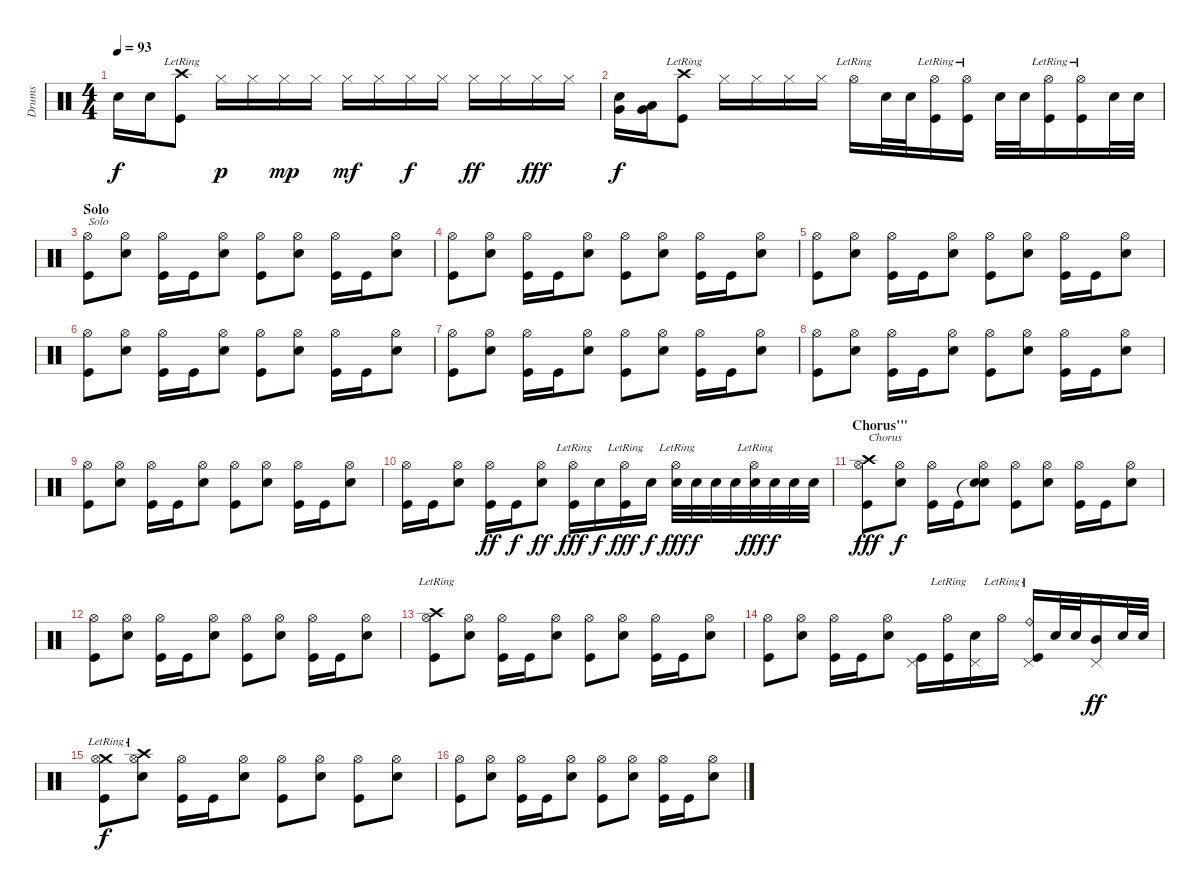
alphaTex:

\track ("Drums" "Drums") {instrument percussion}
\staff {score}
\articulation defaults
\ts (4 4)
\tempo 93
\clef neutral
\ks c "Snare (hit) 2".16{dy f} "Snare (hit) 2".16
("Crash high (hit)"{lr} "Kick (hit)").8 "Hi-Hat (closed)".16{dy p} "Hi-Hat (closed)".16 "Hi-Hat (closed)".16{dy mp} "Hi-Hat (closed)".16 "Hi-Hat (closed)".16{dy mf} "Hi-Hat (closed)".16 "Hi-Hat (closed)".16{dy f} "Hi-Hat (closed)".16 "Hi-Hat (closed)".16{dy ff} "Hi-Hat (closed)".16 "Hi-Hat (closed)".16{dy fff} "Hi-Hat (closed)".16 |
("Very Low Tom (hit)" "Snare (hit) 2").16{dy f} ("Very Low Tom (hit)" "Low Tom (hit)").16 ("Crash high (hit)"{lr} "Kick (hit)").8 "Hi-Hat (closed)".16 "Hi-Hat (closed)".16 "Hi-Hat (closed)".16 "Hi-Hat (closed)".16 "Hi-Hat (open)"{lr}.16 "Snare (hit) 2".32 "Snare (hit) 2".32 ("Hi-Hat (open)"{lr} "Kick (hit)").16 ("Hi-Hat (open)"{lr} "Kick (hit)").16 "Snare (hit) 2".32 "Snare (hit) 2".32 ("Hi-Hat (open)"{lr} "Kick (hit)").16 ("Hi-Hat (open)"{lr} "Kick (hit)").16 "Snare (hit) 2".32 "Snare (hit) 2".32 |
\section ("" "Solo")
("Hi-Hat (open)" "Kick (hit)").8{txt "Solo"} ("Hi-Hat (open)" "Snare (hit) 2").8 ("Hi-Hat (open)" "Kick (hit)").16 "Kick (hit)".16 ("Hi-Hat (open)" "Snare (hit) 2").8 ("Hi-Hat (open)" "Kick (hit)").8 ("Hi-Hat (open)" "Snare (hit) 2").8 ("Hi-Hat (open)" "Kick (hit)").16 "Kick (hit)".16 ("Hi-Hat (open)" "Snare (hit) 2").8 |
("Hi-Hat (open)" "Kick (hit)").8 ("Hi-Hat (open)" "Snare (hit) 2").8 ("Hi-Hat (open)" "Kick (hit)").16 "Kick (hit)".16 ("Hi-Hat (open)" "Snare (hit) 2").8 ("Hi-Hat (open)" "Kick (hit)").8 ("Hi-Hat (open)" "Snare (hit) 2").8 ("Hi-Hat (open)" "Kick (hit)").16 "Kick (hit)".16 ("Hi-Hat (open)" "Snare (hit) 2").8 |
("Hi-Hat (open)" "Kick (hit)").8 ("Hi-Hat (open)" "Snare (hit) 2").8 ("Hi-Hat (open)" "Kick (hit)").16 "Kick (hit)".16 ("Hi-Hat (open)" "Snare (hit) 2").8 ("Hi-Hat (open)" "Kick (hit)").8 ("Hi-Hat (open)" "Snare (hit) 2").8 ("Hi-Hat (open)" "Kick (hit)").16 "Kick (hit)".16 ("Hi-Hat (open)" "Snare (hit) 2").8 |
("Hi-Hat (open)" "Kick (hit)").8 ("Hi-Hat (open)" "Snare (hit) 2").8 ("Hi-Hat (open)" "Kick (hit)").16 "Kick (hit)".16 ("Hi-Hat (open)" "Snare (hit) 2").8 ("Hi-Hat (open)" "Kick (hit)").8 ("Hi-Hat (open)" "Snare (hit) 2").8 ("Hi-Hat (open)" "Kick (hit)").16 "Kick (hit)".16 ("Hi-Hat (open)" "Snare (hit) 2").8 |
("Hi-Hat (open)" "Kick (hit)").8 ("Hi-Hat (open)" "Snare (hit) 2").8 ("Hi-Hat (open)" "Kick (hit)").16 "Kick (hit)".16 ("Hi-Hat (open)" "Snare (hit) 2").8 ("Hi-Hat (open)" "Kick (hit)").8 ("Hi-Hat (open)" "Snare (hit) 2").8 ("Hi-Hat (open)" "Kick (hit)").16 "Kick (hit)".16 ("Hi-Hat (open)" "Snare (hit) 2").8 |
("Hi-Hat (open)" "Kick (hit)").8 ("Hi-Hat (open)" "Snare (hit) 2").8 ("Hi-Hat (open)" "Kick (hit)").16 "Kick (hit)".16 ("Hi-Hat (open)" "Snare (hit) 2").8 ("Hi-Hat (open)" "Kick (hit)").8 ("Hi-Hat (open)" "Snare (hit) 2").8 ("Hi-Hat (open)" "Kick (hit)").16 "Kick (hit)".16 ("Hi-Hat (open)" "Snare (hit) 2").8 |
("Hi-Hat (open)" "Kick (hit)").8 ("Hi-Hat (open)" "Snare (hit) 2").8 ("Hi-Hat (open)" "Kick (hit)").16 "Kick (hit)".16 ("Hi-Hat (open)" "Snare (hit) 2").8 ("Hi-Hat (open)" "Kick (hit)").8 ("Hi-Hat (open)" "Snare (hit) 2").8 ("Hi-Hat (open)" "Kick (hit)").16 "Kick (hit)".16 ("Hi-Hat (open)" "Snare (hit) 2").8 |
("Hi-Hat (open)" "Kick (hit)").16 "Kick (hit)".16 ("Hi-Hat (open)" "Snare (hit) 2").8 ("Hi-Hat (open)" "Kick (hit)").16{dy ff} "Kick (hit)".16{dy f} ("Hi-Hat (open)" "Snare (hit) 2").8{dy ff} ("Hi-Hat (open)"{lr} "Kick (hit)").16{dy fff} "Snare (hit) 2".16{dy f} ("Hi-Hat (open)"{lr} "Kick (hit)").16{dy fff} "Snare (hit) 2".16{dy f} ("Hi-Hat (open)"{lr} "Snare (hit) 2").32{dy fff} "Snare (hit) 2".32{dy f} "Snare (hit) 2".32 "Snare (hit) 2".32 ("Hi-Hat (open)"{lr} "Snare (hit) 2").32{dy fff} "Snare (hit) 2".32{dy f} "Snare (hit) 2".32 "Snare (hit) 2".32 |
\section ("" "Chorus'''")
("Crash high (hit)" "Hi-Hat (open)" "Kick (hit)").8{txt "Chorus" dy fff} ("Hi-Hat (open)" "Snare (hit) 2").8{dy f} ("Hi-Hat (open)" "Kick (hit)").16 "Kick (hit)".16 ("Snare (hit)"{t} "Hi-Hat (open)" "Snare (hit) 2").8 ("Hi-Hat (open)" "Kick (hit)").8 ("Hi-Hat (open)" "Snare (hit) 2").8 ("Hi-Hat (open)" "Kick (hit)").16 "Kick (hit)".16 ("Hi-Hat (open)" "Snare (hit) 2").8 |
("Hi-Hat (open)" "Kick (hit)").8 ("Hi-Hat (open)" "Snare (hit) 2").8 ("Hi-Hat (open)" "Kick (hit)").16 "Kick (hit)".16 ("Hi-Hat (open)" "Snare (hit) 2").8 ("Hi-Hat (open)" "Kick (hit)").8 ("Hi-Hat (open)" "Snare (hit) 2").8 ("Hi-Hat (open)" "Kick (hit)").16 "Kick (hit)".16 ("Hi-Hat (open)" "Snare (hit) 2").8 |
("Crash high (hit)"{lr} "Hi-Hat (open)" "Kick (hit)").8 ("Hi-Hat (open)" "Snare (hit) 2").8 ("Hi-Hat (open)" "Kick (hit)").16 "Kick (hit)".16 ("Hi-Hat (open)" "Snare (hit) 2").8 ("Hi-Hat (open)" "Kick (hit)").8 ("Hi-Hat (open)" "Snare (hit) 2").8 ("Hi-Hat (open)" "Kick (hit)").16 "Kick (hit)".16 ("Hi-Hat (open)" "Snare (hit) 2").8 |
("Hi-Hat (open)" "Kick (hit)").8 ("Hi-Hat (open)" "Snare (hit) 2").8 ("Hi-Hat (open)" "Kick (hit)").16 "Kick (hit)".16 ("Hi-Hat (open)" "Snare (hit) 2").8 ("Pedal Hi-Hat (hit)" "Kick (hit)").16 ("Hi-Hat (open)"{lr} "Kick (hit)").16 ("Pedal Hi-Hat (hit)" "Snare (hit) 2").16 "Hi-Hat (open)"{lr}.16 ("Pedal Hi-Hat (hit)" "Ride (bell)"{lr} "Kick (hit)").16 "Snare (hit) 2".32 "Snare (hit) 2".32 ("Pedal Hi-Hat (hit)" "Mid Tom (hit)").16{dy ff} "Snare (hit) 2".32 "Snare (hit) 2".32 |
("Crash medium (hit)"{lr} "Hi-Hat (open)" "Kick (hit)").8{dy f} ("Crash high (hit)"{lr} "Hi-Hat (open)" "Snare (hit) 2").8 ("Hi-Hat (open)" "Kick (hit)").16 "Kick (hit)".16 ("Hi-Hat (open)" "Snare (hit) 2").8 ("Hi-Hat (open)" "Kick (hit)").8 ("Hi-Hat (open)" "Snare (hit) 2").8 ("Hi-Hat (open)" "Kick (hit)").8 ("Hi-Hat (open)" "Snare (hit) 2").8 |
("Hi-Hat (open)" "Kick (hit)").8 ("Hi-Hat (open)" "Snare (hit) 2").8 ("Hi-Hat (open)" "Kick (hit)").16 "Kick (hit)".16 ("Hi-Hat (open)" "Snare (hit) 2").8 ("Hi-Hat (open)" "Kick (hit)").8 ("Hi-Hat (open)" "Snare (hit) 2").8 ("Hi-Hat (open)" "Kick (hit)").16 "Kick (hit)".16 ("Hi-Hat (open)" "Snare (hit) 2").8
